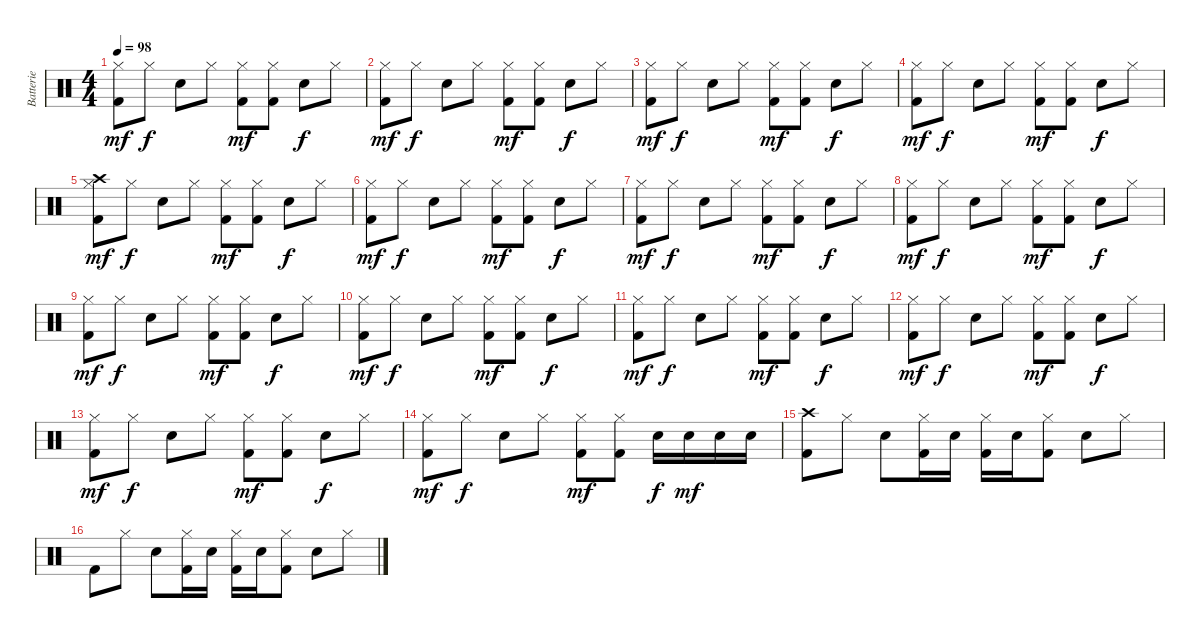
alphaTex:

\track ("Batterie" "Batterie") {instrument percussion}
\staff {score}
\articulation defaults
\ts (4 4)
\tempo 98
\clef neutral
\ks c
("Kick (hit) 2" "Hi-Hat (closed)").8{dy mf} "Hi-Hat (closed)".8{dy f} "Snare (hit) 2".8 "Hi-Hat (closed)".8 ("Kick (hit) 2" "Hi-Hat (closed)").8{dy mf} ("Kick (hit) 2" "Hi-Hat (closed)").8 "Snare (hit) 2".8{dy f} "Hi-Hat (closed)".8 |
("Kick (hit) 2" "Hi-Hat (closed)").8{dy mf} "Hi-Hat (closed)".8{dy f} "Snare (hit) 2".8 "Hi-Hat (closed)".8 ("Kick (hit) 2" "Hi-Hat (closed)").8{dy mf} ("Kick (hit) 2" "Hi-Hat (closed)").8 "Snare (hit) 2".8{dy f} "Hi-Hat (closed)".8 |
("Kick (hit) 2" "Hi-Hat (closed)").8{dy mf} "Hi-Hat (closed)".8{dy f} "Snare (hit) 2".8 "Hi-Hat (closed)".8 ("Kick (hit) 2" "Hi-Hat (closed)").8{dy mf} ("Kick (hit) 2" "Hi-Hat (closed)").8 "Snare (hit) 2".8{dy f} "Hi-Hat (closed)".8 |
("Kick (hit) 2" "Hi-Hat (closed)").8{dy mf} "Hi-Hat (closed)".8{dy f} "Snare (hit) 2".8 "Hi-Hat (closed)".8 ("Kick (hit) 2" "Hi-Hat (closed)").8{dy mf} ("Kick (hit) 2" "Hi-Hat (closed)").8 "Snare (hit) 2".8{dy f} "Hi-Hat (closed)".8 |
("Kick (hit) 2" "Crash high (hit)" "Hi-Hat (closed)").8{dy mf} "Hi-Hat (closed)".8{dy f} "Snare (hit) 2".8 "Hi-Hat (closed)".8 ("Kick (hit) 2" "Hi-Hat (closed)").8{dy mf} ("Kick (hit) 2" "Hi-Hat (closed)").8 "Snare (hit) 2".8{dy f} "Hi-Hat (closed)".8 |
("Kick (hit) 2" "Hi-Hat (closed)").8{dy mf} "Hi-Hat (closed)".8{dy f} "Snare (hit) 2".8 "Hi-Hat (closed)".8 ("Kick (hit) 2" "Hi-Hat (closed)").8{dy mf} ("Kick (hit) 2" "Hi-Hat (closed)").8 "Snare (hit) 2".8{dy f} "Hi-Hat (closed)".8 |
("Kick (hit) 2" "Hi-Hat (closed)").8{dy mf} "Hi-Hat (closed)".8{dy f} "Snare (hit) 2".8 "Hi-Hat (closed)".8 ("Kick (hit) 2" "Hi-Hat (closed)").8{dy mf} ("Kick (hit) 2" "Hi-Hat (closed)").8 "Snare (hit) 2".8{dy f} "Hi-Hat (closed)".8 |
("Kick (hit) 2" "Hi-Hat (closed)").8{dy mf} "Hi-Hat (closed)".8{dy f} "Snare (hit) 2".8 "Hi-Hat (closed)".8 ("Kick (hit) 2" "Hi-Hat (closed)").8{dy mf} ("Kick (hit) 2" "Hi-Hat (closed)").8 "Snare (hit) 2".8{dy f} "Hi-Hat (closed)".8 |
("Kick (hit) 2" "Hi-Hat (closed)").8{dy mf} "Hi-Hat (closed)".8{dy f} "Snare (hit) 2".8 "Hi-Hat (closed)".8 ("Kick (hit) 2" "Hi-Hat (closed)").8{dy mf} ("Kick (hit) 2" "Hi-Hat (closed)").8 "Snare (hit) 2".8{dy f} "Hi-Hat (closed)".8 |
("Kick (hit) 2" "Hi-Hat (closed)").8{dy mf} "Hi-Hat (closed)".8{dy f} "Snare (hit) 2".8 "Hi-Hat (closed)".8 ("Kick (hit) 2" "Hi-Hat (closed)").8{dy mf} ("Kick (hit) 2" "Hi-Hat (closed)").8 "Snare (hit) 2".8{dy f} "Hi-Hat (closed)".8 |
("Kick (hit) 2" "Hi-Hat (closed)").8{dy mf} "Hi-Hat (closed)".8{dy f} "Snare (hit) 2".8 "Hi-Hat (closed)".8 ("Kick (hit) 2" "Hi-Hat (closed)").8{dy mf} ("Kick (hit) 2" "Hi-Hat (closed)").8 "Snare (hit) 2".8{dy f} "Hi-Hat (closed)".8 |
("Kick (hit) 2" "Hi-Hat (closed)").8{dy mf} "Hi-Hat (closed)".8{dy f} "Snare (hit) 2".8 "Hi-Hat (closed)".8 ("Kick (hit) 2" "Hi-Hat (closed)").8{dy mf} ("Kick (hit) 2" "Hi-Hat (closed)").8 "Snare (hit) 2".8{dy f} "Hi-Hat (closed)".8 |
("Kick (hit) 2" "Hi-Hat (closed)").8{dy mf} "Hi-Hat (closed)".8{dy f} "Snare (hit) 2".8 "Hi-Hat (closed)".8 ("Kick (hit) 2" "Hi-Hat (closed)").8{dy mf} ("Kick (hit) 2" "Hi-Hat (closed)").8 "Snare (hit) 2".8{dy f} "Hi-Hat (closed)".8 |
("Kick (hit) 2" "Hi-Hat (closed)").8{dy mf} "Hi-Hat (closed)".8{dy f} "Snare (hit) 2".8 "Hi-Hat (closed)".8 ("Kick (hit) 2" "Hi-Hat (closed)").8{dy mf} ("Kick (hit) 2" "Hi-Hat (closed)").8 "Snare (hit) 2".16{dy f} "Snare (hit) 2".16{dy mf} "Snare (hit) 2".16 "Snare (hit) 2".16 |
("Kick (hit) 2" "Crash high (hit)").8 "Hi-Hat (closed)".8 "Electric Snare (hit)".8 ("Kick (hit) 2" "Hi-Hat (closed)").16 "Snare (hit) 2".16 ("Kick (hit) 2" "Hi-Hat (closed)").16 "Snare (hit) 2".16 ("Kick (hit) 2" "Hi-Hat (closed)").8 "Electric Snare (hit)".8 "Hi-Hat (closed)".8 |
"Kick (hit) 2".8 "Hi-Hat (closed)".8 "Electric Snare (hit)".8 ("Kick (hit) 2" "Hi-Hat (closed)").16 "Snare (hit) 2".16 ("Kick (hit) 2" "Hi-Hat (closed)").16 "Snare (hit) 2".16 ("Kick (hit) 2" "Hi-Hat (closed)").8 "Electric Snare (hit)".8 "Hi-Hat (closed)".8
